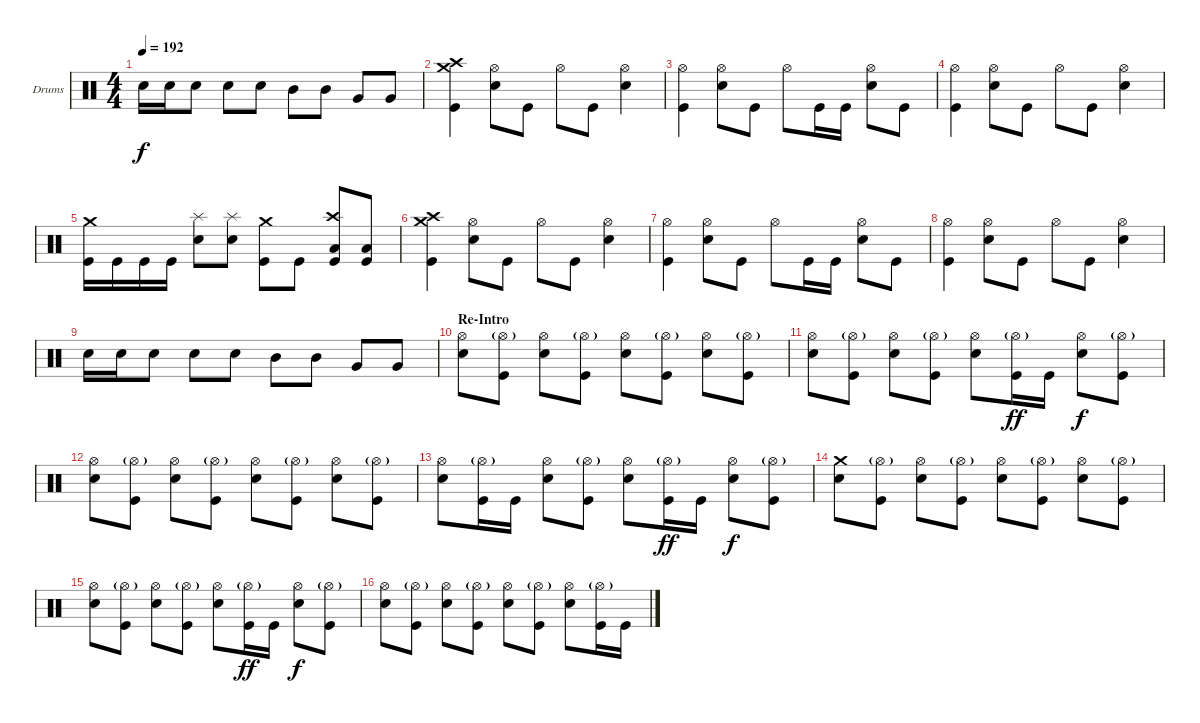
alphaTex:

\bracketExtendMode groupsimilarinstruments
\firstSystemTrackNameOrientation horizontal
\otherSystemsTrackNameOrientation horizontal
\track ("Corey Friedlander" "Drums") {instrument percussion}
\staff {score}
\articulation defaults
\ts (4 4)
\tempo 192
\clef neutral
\ks aminor "Snare (hit) 2".16{dy f} "Snare (hit) 2".16 "Snare (hit) 2".8 "Snare (hit) 2".8 "Snare (hit) 2".8 "Mid Tom (hit)".8 "Mid Tom (hit)".8 "Very Low Tom (hit)".8 "Very Low Tom (hit)".8
|
("Kick (hit)" "Crash medium (hit)" "Crash high (hit)").4 ("Snare (hit) 2" "Hi-Hat (open)").8 "Kick (hit)".8 "Hi-Hat (open)".8 "Kick (hit)".8 ("Snare (hit) 2" "Hi-Hat (open)").4 |
("Kick (hit)" "Hi-Hat (open)").4 ("Snare (hit) 2" "Hi-Hat (open)").8 "Kick (hit)".8 "Hi-Hat (open)".8 "Kick (hit)".16 "Kick (hit)".16 ("Snare (hit) 2" "Hi-Hat (open)").8 "Kick (hit)".8 |
("Kick (hit)" "Hi-Hat (open)").4 ("Snare (hit) 2" "Hi-Hat (open)").8 "Kick (hit)".8 "Hi-Hat (open)".8 "Kick (hit)".8 ("Snare (hit) 2" "Hi-Hat (open)").4 |
("Kick (hit)" "Crash medium (hit)").16 "Kick (hit)".16 "Kick (hit)".16 "Kick (hit)".16 ("Snare (hit) 2" "Splash (hit)").8 ("Snare (hit) 2" "Splash (hit)").8 ("Kick (hit)" "Crash medium (hit)").8 "Kick (hit)".8 ("Kick (hit)" "Low Tom (hit)" "Crash high (hit)").8 ("Low Tom (hit)" "Kick (hit)").8 |
("Kick (hit)" "Crash medium (hit)" "Crash high (hit)").4 ("Snare (hit) 2" "Hi-Hat (open)").8 "Kick (hit)".8 "Hi-Hat (open)".8 "Kick (hit)".8 ("Snare (hit) 2" "Hi-Hat (open)").4 |
("Kick (hit)" "Hi-Hat (open)").4 ("Snare (hit) 2" "Hi-Hat (open)").8 "Kick (hit)".8 "Hi-Hat (open)".8 "Kick (hit)".16 "Kick (hit)".16 ("Snare (hit) 2" "Hi-Hat (open)").8 "Kick (hit)".8 |
("Kick (hit)" "Hi-Hat (open)").4 ("Snare (hit) 2" "Hi-Hat (open)").8 "Kick (hit)".8 "Hi-Hat (open)".8 "Kick (hit)".8 ("Snare (hit) 2" "Hi-Hat (open)").4 |
"Snare (hit) 2".16 "Snare (hit) 2".16 "Snare (hit) 2".8 "Snare (hit) 2".8 "Snare (hit) 2".8 "Mid Tom (hit)".8 "Mid Tom (hit)".8 "Very Low Tom (hit)".8 "Very Low Tom (hit)".8 |
\section ("" "Re-Intro")
("Snare (hit) 2" "Hi-Hat (open)").8 ("Kick (hit)" "Hi-Hat (open)"{g}).8 ("Snare (hit) 2" "Hi-Hat (open)").8 ("Kick (hit)" "Hi-Hat (open)"{g}).8 ("Snare (hit) 2" "Hi-Hat (open)").8 ("Kick (hit)" "Hi-Hat (open)"{g}).8 ("Snare (hit) 2" "Hi-Hat (open)").8 ("Kick (hit)" "Hi-Hat (open)"{g}).8 |
("Snare (hit) 2" "Hi-Hat (open)").8 ("Kick (hit)" "Hi-Hat (open)"{g}).8 ("Snare (hit) 2" "Hi-Hat (open)").8 ("Kick (hit)" "Hi-Hat (open)"{g}).8 ("Snare (hit) 2" "Hi-Hat (open)").8 ("Kick (hit)" "Hi-Hat (open)"{g}).16{dy ff} "Kick (hit)".16 ("Snare (hit) 2" "Hi-Hat (open)").8{dy f} ("Kick (hit)" "Hi-Hat (open)"{g}).8 |
("Snare (hit) 2" "Hi-Hat (open)").8 ("Kick (hit)" "Hi-Hat (open)"{g}).8 ("Snare (hit) 2" "Hi-Hat (open)").8 ("Kick (hit)" "Hi-Hat (open)"{g}).8 ("Snare (hit) 2" "Hi-Hat (open)").8 ("Kick (hit)" "Hi-Hat (open)"{g}).8 ("Snare (hit) 2" "Hi-Hat (open)").8 ("Kick (hit)" "Hi-Hat (open)"{g}).8 |
("Snare (hit) 2" "Hi-Hat (open)").8 ("Kick (hit)" "Hi-Hat (open)"{g}).16 "Kick (hit)".16 ("Snare (hit) 2" "Hi-Hat (open)").8 ("Kick (hit)" "Hi-Hat (open)"{g}).8 ("Snare (hit) 2" "Hi-Hat (open)").8 ("Kick (hit)" "Hi-Hat (open)"{g}).16{dy ff} "Kick (hit)".16 ("Snare (hit) 2" "Hi-Hat (open)").8{dy f} ("Kick (hit)" "Hi-Hat (open)"{g}).8 |
("Snare (hit) 2" "Crash medium (hit)").8 ("Kick (hit)" "Hi-Hat (open)"{g}).8 ("Snare (hit) 2" "Hi-Hat (open)").8 ("Kick (hit)" "Hi-Hat (open)"{g}).8 ("Snare (hit) 2" "Hi-Hat (open)").8 ("Kick (hit)" "Hi-Hat (open)"{g}).8 ("Snare (hit) 2" "Hi-Hat (open)").8 ("Kick (hit)" "Hi-Hat (open)"{g}).8 |
("Snare (hit) 2" "Hi-Hat (open)").8 ("Kick (hit)" "Hi-Hat (open)"{g}).8 ("Snare (hit) 2" "Hi-Hat (open)").8 ("Kick (hit)" "Hi-Hat (open)"{g}).8 ("Snare (hit) 2" "Hi-Hat (open)").8 ("Kick (hit)" "Hi-Hat (open)"{g}).16{dy ff} "Kick (hit)".16 ("Snare (hit) 2" "Hi-Hat (open)").8{dy f} ("Kick (hit)" "Hi-Hat (open)"{g}).8 |
("Snare (hit) 2" "Hi-Hat (open)").8 ("Kick (hit)" "Hi-Hat (open)"{g}).8 ("Snare (hit) 2" "Hi-Hat (open)").8 ("Kick (hit)" "Hi-Hat (open)"{g}).8 ("Snare (hit) 2" "Hi-Hat (open)").8 ("Kick (hit)" "Hi-Hat (open)"{g}).8 ("Snare (hit) 2" "Hi-Hat (open)").8 ("Kick (hit)" "Hi-Hat (open)"{g}).16 "Kick (hit)".16
